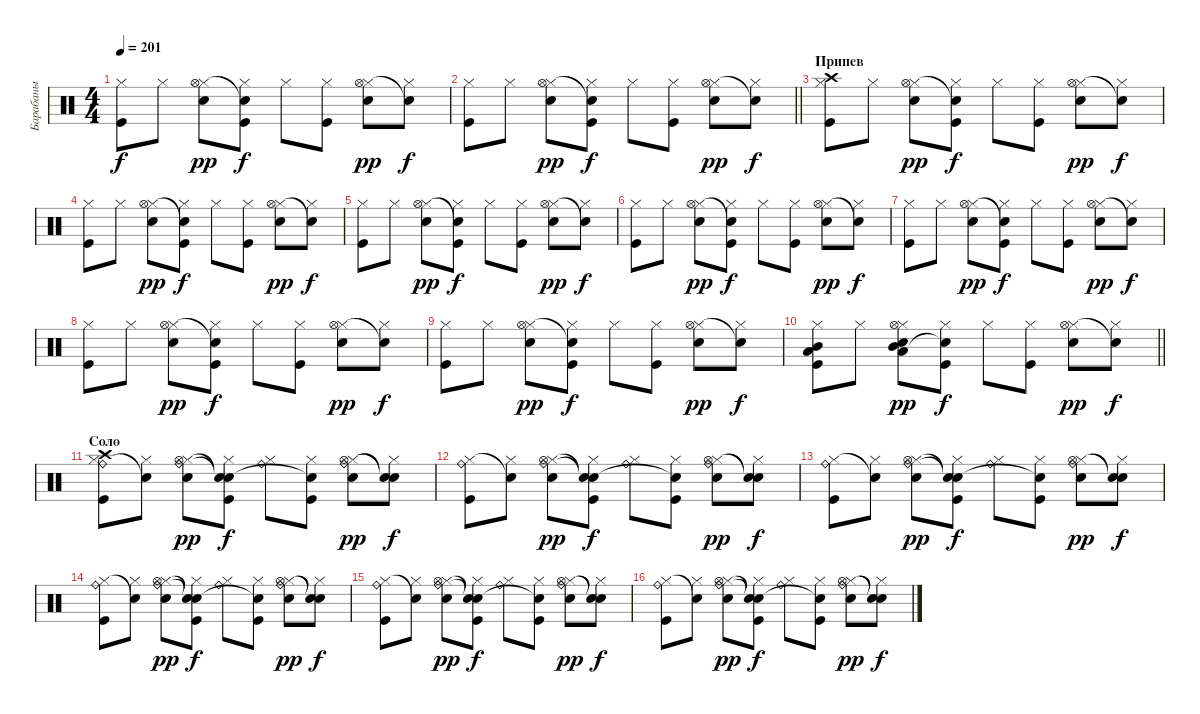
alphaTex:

\track ("Барабаны" "Барабаны") {instrument percussion}
\staff {score}
\articulation defaults
\ts (4 4)
\tempo 201
\clef neutral
\ks c
("Kick (hit)" "Hi-Hat (closed)").8{dy f} "Hi-Hat (closed)".8 ("Snare (hit) 2" "Hi-Hat (closed)" "Hi-Hat (open)").8{dy pp} ("Kick (hit)" "Hi-Hat (closed)" "Snare (hit)"{t}).8{dy f} "Hi-Hat (closed)".8 ("Kick (hit)" "Hi-Hat (closed)").8 ("Snare (hit) 2" "Hi-Hat (closed)" "Hi-Hat (open)").8{dy pp} ("Hi-Hat (closed)" "Snare (hit)"{t}).8{dy f} |
\barLineRight lightlight
("Kick (hit)" "Hi-Hat (closed)").8 "Hi-Hat (closed)".8 ("Snare (hit) 2" "Hi-Hat (closed)" "Hi-Hat (open)").8{dy pp} ("Kick (hit)" "Hi-Hat (closed)" "Snare (hit)"{t}).8{dy f} "Hi-Hat (closed)".8 ("Kick (hit)" "Hi-Hat (closed)").8 ("Snare (hit) 2" "Hi-Hat (closed)" "Hi-Hat (open)").8{dy pp} ("Hi-Hat (closed)" "Snare (hit)"{t}).8{dy f} |
\section ("" "Припев")
("Kick (hit)" "Hi-Hat (closed)" "Crash high (hit)").8 "Hi-Hat (closed)".8 ("Snare (hit) 2" "Hi-Hat (closed)" "Hi-Hat (open)").8{dy pp} ("Kick (hit)" "Hi-Hat (closed)" "Snare (hit)"{t}).8{dy f} "Hi-Hat (closed)".8 ("Kick (hit)" "Hi-Hat (closed)").8 ("Snare (hit) 2" "Hi-Hat (closed)" "Hi-Hat (open)").8{dy pp} ("Hi-Hat (closed)" "Snare (hit)"{t}).8{dy f} |
("Kick (hit)" "Hi-Hat (closed)").8 "Hi-Hat (closed)".8 ("Snare (hit) 2" "Hi-Hat (closed)" "Hi-Hat (open)").8{dy pp} ("Kick (hit)" "Hi-Hat (closed)" "Snare (hit)"{t}).8{dy f} "Hi-Hat (closed)".8 ("Kick (hit)" "Hi-Hat (closed)").8 ("Snare (hit) 2" "Hi-Hat (closed)" "Hi-Hat (open)").8{dy pp} ("Hi-Hat (closed)" "Snare (hit)"{t}).8{dy f} |
("Kick (hit)" "Hi-Hat (closed)").8 "Hi-Hat (closed)".8 ("Snare (hit) 2" "Hi-Hat (closed)" "Hi-Hat (open)").8{dy pp} ("Kick (hit)" "Hi-Hat (closed)" "Snare (hit)"{t}).8{dy f} "Hi-Hat (closed)".8 ("Kick (hit)" "Hi-Hat (closed)").8 ("Snare (hit) 2" "Hi-Hat (closed)" "Hi-Hat (open)").8{dy pp} ("Hi-Hat (closed)" "Snare (hit)"{t}).8{dy f} |
("Kick (hit)" "Hi-Hat (closed)").8 "Hi-Hat (closed)".8 ("Snare (hit) 2" "Hi-Hat (closed)" "Hi-Hat (open)").8{dy pp} ("Kick (hit)" "Hi-Hat (closed)" "Snare (hit)"{t}).8{dy f} "Hi-Hat (closed)".8 ("Kick (hit)" "Hi-Hat (closed)").8 ("Snare (hit) 2" "Hi-Hat (closed)" "Hi-Hat (open)").8{dy pp} ("Hi-Hat (closed)" "Snare (hit)"{t}).8{dy f} |
("Kick (hit)" "Hi-Hat (closed)").8 "Hi-Hat (closed)".8 ("Snare (hit) 2" "Hi-Hat (closed)" "Hi-Hat (open)").8{dy pp} ("Kick (hit)" "Hi-Hat (closed)" "Snare (hit)"{t}).8{dy f} "Hi-Hat (closed)".8 ("Kick (hit)" "Hi-Hat (closed)").8 ("Snare (hit) 2" "Hi-Hat (closed)" "Hi-Hat (open)").8{dy pp} ("Hi-Hat (closed)" "Snare (hit)"{t}).8{dy f} |
("Kick (hit)" "Hi-Hat (closed)").8 "Hi-Hat (closed)".8 ("Snare (hit) 2" "Hi-Hat (closed)" "Hi-Hat (open)").8{dy pp} ("Kick (hit)" "Hi-Hat (closed)" "Snare (hit)"{t}).8{dy f} "Hi-Hat (closed)".8 ("Kick (hit)" "Hi-Hat (closed)").8 ("Snare (hit) 2" "Hi-Hat (closed)" "Hi-Hat (open)").8{dy pp} ("Hi-Hat (closed)" "Snare (hit)"{t}).8{dy f} |
("Kick (hit)" "Hi-Hat (closed)").8 "Hi-Hat (closed)".8 ("Snare (hit) 2" "Hi-Hat (closed)" "Hi-Hat (open)").8{dy pp} ("Kick (hit)" "Hi-Hat (closed)" "Snare (hit)"{t}).8{dy f} "Hi-Hat (closed)".8 ("Kick (hit)" "Hi-Hat (closed)").8 ("Snare (hit) 2" "Hi-Hat (closed)" "Hi-Hat (open)").8{dy pp} ("Hi-Hat (closed)" "Snare (hit)"{t}).8{dy f} |
\barLineRight lightlight
("Kick (hit)" "Hi-Hat (closed)" "Low Floor Tom (hit)" "Mid Tom (hit)").8 "Hi-Hat (closed)".8 ("Snare (hit) 2" "Hi-Hat (closed)" "Low Floor Tom (hit)" "Mid Tom (hit)" "Hi-Hat (open)").8{dy pp} ("Kick (hit)" "Hi-Hat (closed)" "Snare (hit)"{t}).8{dy f} "Hi-Hat (closed)".8 ("Kick (hit)" "Hi-Hat (closed)").8 ("Snare (hit) 2" "Hi-Hat (closed)" "Hi-Hat (open)").8{dy pp} ("Hi-Hat (closed)" "Snare (hit)"{t}).8{dy f} |
\section ("" "Соло")
("Kick (hit)" "Hi-Hat (closed)" "Crash high (hit)" "Ride (bell)").8 ("Hi-Hat (closed)" "Snare (hit)"{t}).8 ("Snare (hit) 2" "Hi-Hat (closed)" "Hi-Hat (open)" "Ride (bell)").8{dy pp} ("Kick (hit)" "Hi-Hat (closed)" "Snare (hit)"{t} "Snare (hit)"{t}).8{dy f} ("Hi-Hat (closed)" "Ride (bell)").8 ("Kick (hit)" "Hi-Hat (closed)" "Snare (hit)"{t}).8 ("Snare (hit) 2" "Hi-Hat (closed)" "Hi-Hat (open)" "Ride (bell)").8{dy pp} ("Hi-Hat (closed)" "Snare (hit)"{t} "Snare (hit)"{t}).8{dy f} |
("Kick (hit)" "Hi-Hat (closed)" "Ride (bell)").8 ("Hi-Hat (closed)" "Snare (hit)"{t}).8 ("Snare (hit) 2" "Hi-Hat (closed)" "Hi-Hat (open)" "Ride (bell)").8{dy pp} ("Kick (hit)" "Hi-Hat (closed)" "Snare (hit)"{t} "Snare (hit)"{t}).8{dy f} ("Hi-Hat (closed)" "Ride (bell)").8 ("Kick (hit)" "Hi-Hat (closed)" "Snare (hit)"{t}).8 ("Snare (hit) 2" "Hi-Hat (closed)" "Hi-Hat (open)" "Ride (bell)").8{dy pp} ("Hi-Hat (closed)" "Snare (hit)"{t} "Snare (hit)"{t}).8{dy f} |
("Kick (hit)" "Hi-Hat (closed)" "Ride (bell)").8 ("Hi-Hat (closed)" "Snare (hit)"{t}).8 ("Snare (hit) 2" "Hi-Hat (closed)" "Hi-Hat (open)" "Ride (bell)").8{dy pp} ("Kick (hit)" "Hi-Hat (closed)" "Snare (hit)"{t} "Snare (hit)"{t}).8{dy f} ("Hi-Hat (closed)" "Ride (bell)").8 ("Kick (hit)" "Hi-Hat (closed)" "Snare (hit)"{t}).8 ("Snare (hit) 2" "Hi-Hat (closed)" "Hi-Hat (open)" "Ride (bell)").8{dy pp} ("Hi-Hat (closed)" "Snare (hit)"{t} "Snare (hit)"{t}).8{dy f} |
("Kick (hit)" "Hi-Hat (closed)" "Ride (bell)").8 ("Hi-Hat (closed)" "Snare (hit)"{t}).8 ("Snare (hit) 2" "Hi-Hat (closed)" "Hi-Hat (open)" "Ride (bell)").8{dy pp} ("Kick (hit)" "Hi-Hat (closed)" "Snare (hit)"{t} "Snare (hit)"{t}).8{dy f} ("Hi-Hat (closed)" "Ride (bell)").8 ("Kick (hit)" "Hi-Hat (closed)" "Snare (hit)"{t}).8 ("Snare (hit) 2" "Hi-Hat (closed)" "Hi-Hat (open)" "Ride (bell)").8{dy pp} ("Hi-Hat (closed)" "Snare (hit)"{t} "Snare (hit)"{t}).8{dy f} |
("Kick (hit)" "Hi-Hat (closed)" "Ride (bell)").8 ("Hi-Hat (closed)" "Snare (hit)"{t}).8 ("Snare (hit) 2" "Hi-Hat (closed)" "Hi-Hat (open)" "Ride (bell)").8{dy pp} ("Kick (hit)" "Hi-Hat (closed)" "Snare (hit)"{t} "Snare (hit)"{t}).8{dy f} ("Hi-Hat (closed)" "Ride (bell)").8 ("Kick (hit)" "Hi-Hat (closed)" "Snare (hit)"{t}).8 ("Snare (hit) 2" "Hi-Hat (closed)" "Hi-Hat (open)" "Ride (bell)").8{dy pp} ("Hi-Hat (closed)" "Snare (hit)"{t} "Snare (hit)"{t}).8{dy f} |
("Kick (hit)" "Hi-Hat (closed)" "Ride (bell)").8 ("Hi-Hat (closed)" "Snare (hit)"{t}).8 ("Snare (hit) 2" "Hi-Hat (closed)" "Hi-Hat (open)" "Ride (bell)").8{dy pp} ("Kick (hit)" "Hi-Hat (closed)" "Snare (hit)"{t} "Snare (hit)"{t}).8{dy f} ("Hi-Hat (closed)" "Ride (bell)").8 ("Kick (hit)" "Hi-Hat (closed)" "Snare (hit)"{t}).8 ("Snare (hit) 2" "Hi-Hat (closed)" "Hi-Hat (open)" "Ride (bell)").8{dy pp} ("Hi-Hat (closed)" "Snare (hit)"{t} "Snare (hit)"{t}).8{dy f}
